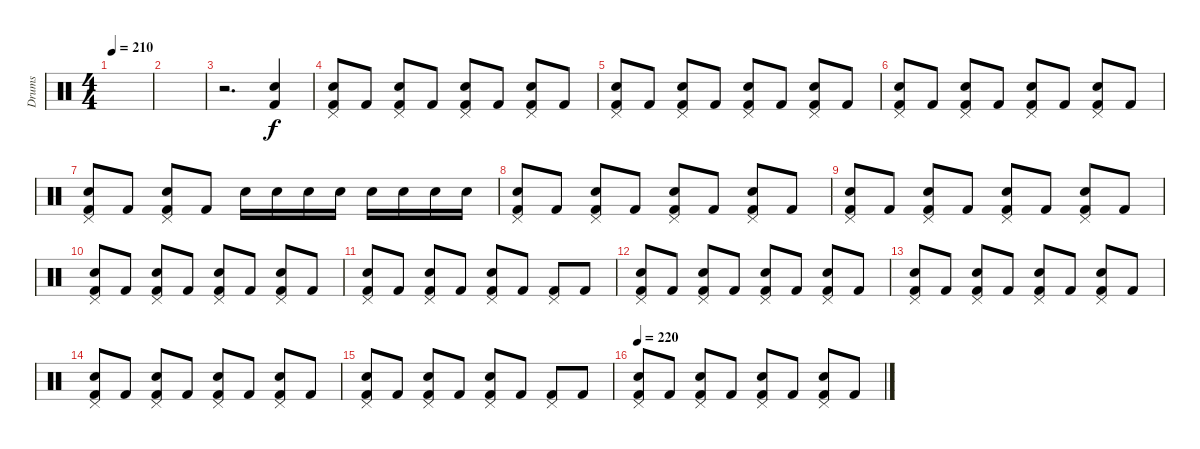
\track ("Drums" "Drums") {instrument percussion}
\staff {score}
\articulation defaults
\ts (4 4)
\tempo 210
\clef neutral
\ks c
|
|
r.2{d} ("Snare (hit) 2" "Kick (hit) 2").4 |
("Pedal Hi-Hat (hit)" "Snare (hit) 2" "Kick (hit) 2").8 "Kick (hit) 2".8 ("Pedal Hi-Hat (hit)" "Snare (hit) 2" "Kick (hit) 2").8 "Kick (hit) 2".8 ("Pedal Hi-Hat (hit)" "Snare (hit) 2" "Kick (hit) 2").8 "Kick (hit) 2".8 ("Pedal Hi-Hat (hit)" "Snare (hit) 2" "Kick (hit) 2").8 "Kick (hit) 2".8 |
("Pedal Hi-Hat (hit)" "Snare (hit) 2" "Kick (hit) 2").8 "Kick (hit) 2".8 ("Pedal Hi-Hat (hit)" "Snare (hit) 2" "Kick (hit) 2").8 "Kick (hit) 2".8 ("Pedal Hi-Hat (hit)" "Snare (hit) 2" "Kick (hit) 2").8 "Kick (hit) 2".8 ("Pedal Hi-Hat (hit)" "Snare (hit) 2" "Kick (hit) 2").8 "Kick (hit) 2".8 |
("Pedal Hi-Hat (hit)" "Snare (hit) 2" "Kick (hit) 2").8 "Kick (hit) 2".8 ("Pedal Hi-Hat (hit)" "Snare (hit) 2" "Kick (hit) 2").8 "Kick (hit) 2".8 ("Pedal Hi-Hat (hit)" "Snare (hit) 2" "Kick (hit) 2").8 "Kick (hit) 2".8 ("Pedal Hi-Hat (hit)" "Snare (hit) 2" "Kick (hit) 2").8 "Kick (hit) 2".8 |
("Pedal Hi-Hat (hit)" "Snare (hit) 2" "Kick (hit) 2").8 "Kick (hit) 2".8 ("Pedal Hi-Hat (hit)" "Snare (hit) 2" "Kick (hit) 2").8 "Kick (hit) 2".8 "Snare (hit) 2".16 "Snare (hit) 2".16 "Snare (hit) 2".16 "Snare (hit) 2".16 "Snare (hit) 2".16 "Snare (hit) 2".16 "Snare (hit) 2".16 "Snare (hit) 2".16 |
("Pedal Hi-Hat (hit)" "Snare (hit) 2" "Kick (hit) 2").8 "Kick (hit) 2".8 ("Pedal Hi-Hat (hit)" "Snare (hit) 2" "Kick (hit) 2").8 "Kick (hit) 2".8 ("Pedal Hi-Hat (hit)" "Snare (hit) 2" "Kick (hit) 2").8 "Kick (hit) 2".8 ("Pedal Hi-Hat (hit)" "Snare (hit) 2" "Kick (hit) 2").8 "Kick (hit) 2".8 |
("Pedal Hi-Hat (hit)" "Snare (hit) 2" "Kick (hit) 2").8 "Kick (hit) 2".8 ("Pedal Hi-Hat (hit)" "Snare (hit) 2" "Kick (hit) 2").8 "Kick (hit) 2".8 ("Pedal Hi-Hat (hit)" "Snare (hit) 2" "Kick (hit) 2").8 "Kick (hit) 2".8 ("Pedal Hi-Hat (hit)" "Snare (hit) 2" "Kick (hit) 2").8 "Kick (hit) 2".8 |
("Pedal Hi-Hat (hit)" "Snare (hit) 2" "Kick (hit) 2").8 "Kick (hit) 2".8 ("Pedal Hi-Hat (hit)" "Snare (hit) 2" "Kick (hit) 2").8 "Kick (hit) 2".8 ("Pedal Hi-Hat (hit)" "Snare (hit) 2" "Kick (hit) 2").8 "Kick (hit) 2".8 ("Pedal Hi-Hat (hit)" "Snare (hit) 2" "Kick (hit) 2").8 "Kick (hit) 2".8 |
("Pedal Hi-Hat (hit)" "Snare (hit) 2" "Kick (hit) 2").8 "Kick (hit) 2".8 ("Pedal Hi-Hat (hit)" "Snare (hit) 2" "Kick (hit) 2").8 "Kick (hit) 2".8 ("Pedal Hi-Hat (hit)" "Snare (hit) 2" "Kick (hit) 2").8 "Kick (hit) 2".8 ("Pedal Hi-Hat (hit)" "Kick (hit) 2").8 "Kick (hit) 2".8 |
("Pedal Hi-Hat (hit)" "Snare (hit) 2" "Kick (hit) 2").8 "Kick (hit) 2".8 ("Pedal Hi-Hat (hit)" "Snare (hit) 2" "Kick (hit) 2").8 "Kick (hit) 2".8 ("Pedal Hi-Hat (hit)" "Snare (hit) 2" "Kick (hit) 2").8 "Kick (hit) 2".8 ("Pedal Hi-Hat (hit)" "Snare (hit) 2" "Kick (hit) 2").8 "Kick (hit) 2".8 |
("Pedal Hi-Hat (hit)" "Snare (hit) 2" "Kick (hit) 2").8 "Kick (hit) 2".8 ("Pedal Hi-Hat (hit)" "Snare (hit) 2" "Kick (hit) 2").8 "Kick (hit) 2".8 ("Pedal Hi-Hat (hit)" "Snare (hit) 2" "Kick (hit) 2").8 "Kick (hit) 2".8 ("Pedal Hi-Hat (hit)" "Snare (hit) 2" "Kick (hit) 2").8 "Kick (hit) 2".8 |
("Pedal Hi-Hat (hit)" "Snare (hit) 2" "Kick (hit) 2").8 "Kick (hit) 2".8 ("Pedal Hi-Hat (hit)" "Snare (hit) 2" "Kick (hit) 2").8 "Kick (hit) 2".8 ("Pedal Hi-Hat (hit)" "Snare (hit) 2" "Kick (hit) 2").8 "Kick (hit) 2".8 ("Pedal Hi-Hat (hit)" "Snare (hit) 2" "Kick (hit) 2").8 "Kick (hit) 2".8 |
("Pedal Hi-Hat (hit)" "Snare (hit) 2" "Kick (hit) 2").8 "Kick (hit) 2".8 ("Pedal Hi-Hat (hit)" "Snare (hit) 2" "Kick (hit) 2").8 "Kick (hit) 2".8 ("Pedal Hi-Hat (hit)" "Snare (hit) 2" "Kick (hit) 2").8 "Kick (hit) 2".8 ("Pedal Hi-Hat (hit)" "Kick (hit) 2").8 "Kick (hit) 2".8 |
\tempo 220
("Pedal Hi-Hat (hit)" "Snare (hit) 2" "Kick (hit) 2").8 "Kick (hit) 2".8 ("Pedal Hi-Hat (hit)" "Snare (hit) 2" "Kick (hit) 2").8 "Kick (hit) 2".8 ("Pedal Hi-Hat (hit)" "Snare (hit) 2" "Kick (hit) 2").8 "Kick (hit) 2".8 ("Pedal Hi-Hat (hit)" "Snare (hit) 2" "Kick (hit) 2").8 "Kick (hit) 2".8
